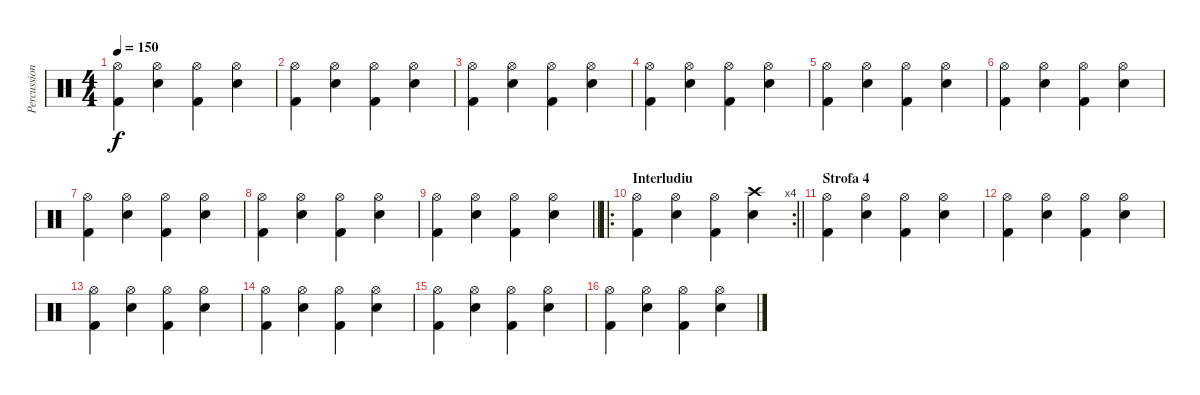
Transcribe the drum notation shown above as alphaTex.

\track ("Percussion" "Percussion") {instrument percussion}
\staff {score}
\articulation defaults
\ts (4 4)
\tempo 150
\clef neutral
\ks c
("Hi-Hat (open)" "Kick (hit) 2").4{dy f} ("Hi-Hat (open)" "Snare (hit) 2").4 ("Hi-Hat (open)" "Kick (hit) 2").4 ("Hi-Hat (open)" "Snare (hit) 2").4 |
("Hi-Hat (open)" "Kick (hit) 2").4 ("Hi-Hat (open)" "Snare (hit) 2").4 ("Hi-Hat (open)" "Kick (hit) 2").4 ("Hi-Hat (open)" "Snare (hit) 2").4 |
("Hi-Hat (open)" "Kick (hit) 2").4 ("Hi-Hat (open)" "Snare (hit) 2").4 ("Hi-Hat (open)" "Kick (hit) 2").4 ("Hi-Hat (open)" "Snare (hit) 2").4 |
("Hi-Hat (open)" "Kick (hit) 2").4 ("Hi-Hat (open)" "Snare (hit) 2").4 ("Hi-Hat (open)" "Kick (hit) 2").4 ("Hi-Hat (open)" "Snare (hit) 2").4 |
("Hi-Hat (open)" "Kick (hit) 2").4 ("Hi-Hat (open)" "Snare (hit) 2").4 ("Hi-Hat (open)" "Kick (hit) 2").4 ("Hi-Hat (open)" "Snare (hit) 2").4 |
("Hi-Hat (open)" "Kick (hit) 2").4 ("Hi-Hat (open)" "Snare (hit) 2").4 ("Hi-Hat (open)" "Kick (hit) 2").4 ("Hi-Hat (open)" "Snare (hit) 2").4 |
("Hi-Hat (open)" "Kick (hit) 2").4 ("Hi-Hat (open)" "Snare (hit) 2").4 ("Hi-Hat (open)" "Kick (hit) 2").4 ("Hi-Hat (open)" "Snare (hit) 2").4 |
("Hi-Hat (open)" "Kick (hit) 2").4 ("Hi-Hat (open)" "Snare (hit) 2").4 ("Hi-Hat (open)" "Kick (hit) 2").4 ("Hi-Hat (open)" "Snare (hit) 2").4 |
\barLineRight lightlight
("Hi-Hat (open)" "Kick (hit) 2").4 ("Hi-Hat (open)" "Snare (hit) 2").4 ("Hi-Hat (open)" "Kick (hit) 2").4 ("Hi-Hat (open)" "Snare (hit) 2").4 |
\ro
\rc 4
\section ("" "Interludiu")
\barLineRight lightlight
("Hi-Hat (open)" "Kick (hit) 2").4 ("Hi-Hat (open)" "Snare (hit) 2").4 ("Hi-Hat (open)" "Kick (hit) 2").4 ("Crash high (hit)" "Snare (hit) 2").4 |
\section ("" "Strofa 4")
("Hi-Hat (open)" "Kick (hit) 2").4 ("Hi-Hat (open)" "Snare (hit) 2").4 ("Hi-Hat (open)" "Kick (hit) 2").4 ("Hi-Hat (open)" "Snare (hit) 2").4 |
("Hi-Hat (open)" "Kick (hit) 2").4 ("Hi-Hat (open)" "Snare (hit) 2").4 ("Hi-Hat (open)" "Kick (hit) 2").4 ("Hi-Hat (open)" "Snare (hit) 2").4 |
("Hi-Hat (open)" "Kick (hit) 2").4 ("Hi-Hat (open)" "Snare (hit) 2").4 ("Hi-Hat (open)" "Kick (hit) 2").4 ("Hi-Hat (open)" "Snare (hit) 2").4 |
("Hi-Hat (open)" "Kick (hit) 2").4 ("Hi-Hat (open)" "Snare (hit) 2").4 ("Hi-Hat (open)" "Kick (hit) 2").4 ("Hi-Hat (open)" "Snare (hit) 2").4 |
("Hi-Hat (open)" "Kick (hit) 2").4 ("Hi-Hat (open)" "Snare (hit) 2").4 ("Hi-Hat (open)" "Kick (hit) 2").4 ("Hi-Hat (open)" "Snare (hit) 2").4 |
("Hi-Hat (open)" "Kick (hit) 2").4 ("Hi-Hat (open)" "Snare (hit) 2").4 ("Hi-Hat (open)" "Kick (hit) 2").4 ("Hi-Hat (open)" "Snare (hit) 2").4
